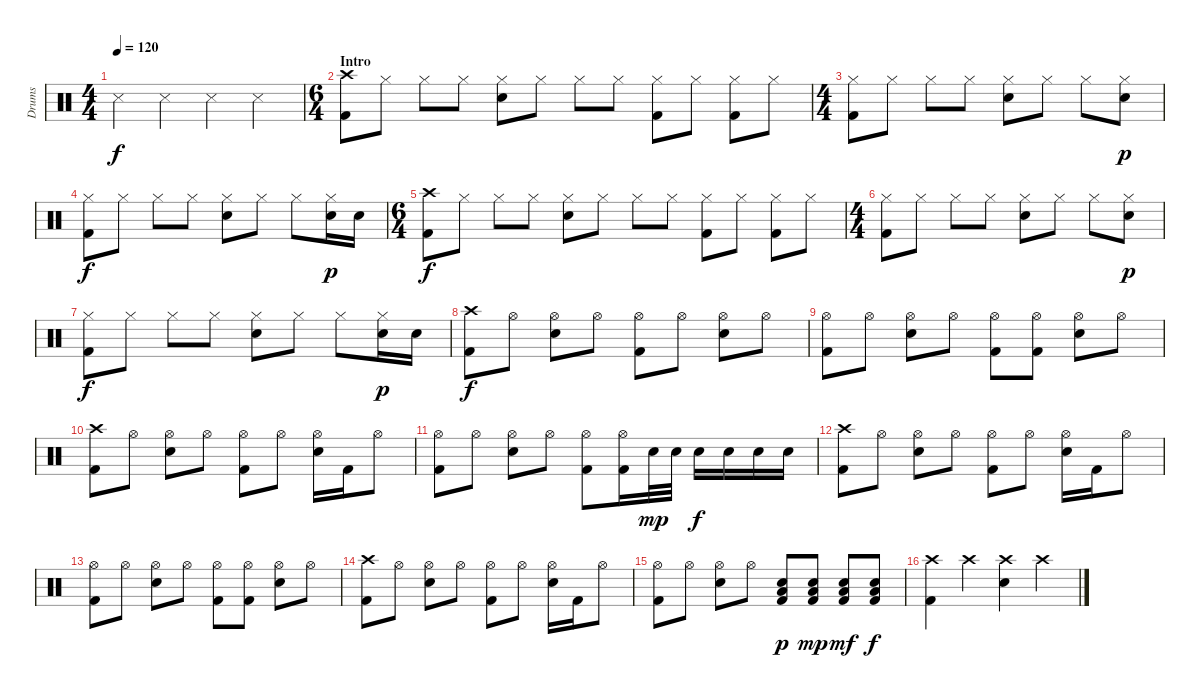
\track ("Drums" "Drums") {instrument percussion}
\staff {score}
\articulation defaults
\ts (4 4)
\tempo 120
\clef neutral
\ks c "Snare (side stick) 3".4{dy f} "Snare (side stick) 3".4 "Snare (side stick) 3".4 "Snare (side stick) 3".4
|
\ts (6 4)
\section ("" "Intro")
("Crash high (hit)" "Kick (hit) 2").8 "Hi-Hat (closed)".8 "Hi-Hat (closed)".8 "Hi-Hat (closed)".8 ("Hi-Hat (closed)" "Electric Snare (hit)").8 "Hi-Hat (closed)".8 "Hi-Hat (closed)".8 "Hi-Hat (closed)".8 ("Hi-Hat (closed)" "Kick (hit) 2").8 "Hi-Hat (closed)".8 ("Hi-Hat (closed)" "Kick (hit) 2").8 "Hi-Hat (closed)".8 |
\ts (4 4)
("Hi-Hat (closed)" "Kick (hit) 2").8 "Hi-Hat (closed)".8 "Hi-Hat (closed)".8 "Hi-Hat (closed)".8 ("Hi-Hat (closed)" "Electric Snare (hit)").8 "Hi-Hat (closed)".8 "Hi-Hat (closed)".8 ("Hi-Hat (closed)" "Electric Snare (hit)").8{dy p} |
("Hi-Hat (closed)" "Kick (hit) 2").8{dy f} "Hi-Hat (closed)".8 "Hi-Hat (closed)".8 "Hi-Hat (closed)".8 ("Hi-Hat (closed)" "Electric Snare (hit)").8 "Hi-Hat (closed)".8 "Hi-Hat (closed)".8 ("Hi-Hat (closed)" "Electric Snare (hit)").16{dy p} "Electric Snare (hit)".16 |
\ts (6 4)
("Crash high (hit)" "Kick (hit) 2").8{dy f} "Hi-Hat (closed)".8 "Hi-Hat (closed)".8 "Hi-Hat (closed)".8 ("Hi-Hat (closed)" "Electric Snare (hit)").8 "Hi-Hat (closed)".8 "Hi-Hat (closed)".8 "Hi-Hat (closed)".8 ("Hi-Hat (closed)" "Kick (hit) 2").8 "Hi-Hat (closed)".8 ("Hi-Hat (closed)" "Kick (hit) 2").8 "Hi-Hat (closed)".8 |
\ts (4 4)
("Hi-Hat (closed)" "Kick (hit) 2").8 "Hi-Hat (closed)".8 "Hi-Hat (closed)".8 "Hi-Hat (closed)".8 ("Hi-Hat (closed)" "Electric Snare (hit)").8 "Hi-Hat (closed)".8 "Hi-Hat (closed)".8 ("Hi-Hat (closed)" "Electric Snare (hit)").8{dy p} |
("Hi-Hat (closed)" "Kick (hit) 2").8{dy f} "Hi-Hat (closed)".8 "Hi-Hat (closed)".8 "Hi-Hat (closed)".8 ("Hi-Hat (closed)" "Electric Snare (hit)").8 "Hi-Hat (closed)".8 "Hi-Hat (closed)".8 ("Hi-Hat (closed)" "Electric Snare (hit)").16{dy p} "Electric Snare (hit)".16 |
("Crash high (hit)" "Kick (hit) 2").8{dy f} "Hi-Hat (open)".8 ("Hi-Hat (open)" "Electric Snare (hit)").8 "Hi-Hat (open)".8 ("Hi-Hat (open)" "Kick (hit) 2").8 "Hi-Hat (open)".8 ("Hi-Hat (open)" "Electric Snare (hit)").8 "Hi-Hat (open)".8 |
("Hi-Hat (open)" "Kick (hit) 2").8 "Hi-Hat (open)".8 ("Hi-Hat (open)" "Electric Snare (hit)").8 "Hi-Hat (open)".8 ("Hi-Hat (open)" "Kick (hit) 2").8 ("Hi-Hat (open)" "Kick (hit) 2").8 ("Hi-Hat (open)" "Electric Snare (hit)").8 "Hi-Hat (open)".8 |
("Crash high (hit)" "Kick (hit) 2").8 "Hi-Hat (open)".8 ("Hi-Hat (open)" "Electric Snare (hit)").8 "Hi-Hat (open)".8 ("Hi-Hat (open)" "Kick (hit) 2").8 "Hi-Hat (open)".8 ("Hi-Hat (open)" "Electric Snare (hit)").16 "Kick (hit) 2".16 "Hi-Hat (open)".8 |
("Hi-Hat (open)" "Kick (hit) 2").8 "Hi-Hat (open)".8 ("Hi-Hat (open)" "Electric Snare (hit)").8 "Hi-Hat (open)".8 ("Hi-Hat (open)" "Kick (hit) 2").8 ("Hi-Hat (open)" "Kick (hit) 2").16 "Electric Snare (hit)".32{dy mp} "Electric Snare (hit)".32 "Electric Snare (hit)".16{dy f} "Electric Snare (hit)".16 "Electric Snare (hit)".16 "Electric Snare (hit)".16 |
("Crash high (hit)" "Kick (hit) 2").8 "Hi-Hat (open)".8 ("Hi-Hat (open)" "Electric Snare (hit)").8 "Hi-Hat (open)".8 ("Hi-Hat (open)" "Kick (hit) 2").8 "Hi-Hat (open)".8 ("Hi-Hat (open)" "Electric Snare (hit)").16 "Kick (hit) 2".16 "Hi-Hat (open)".8 |
("Hi-Hat (open)" "Kick (hit) 2").8 "Hi-Hat (open)".8 ("Hi-Hat (open)" "Electric Snare (hit)").8 "Hi-Hat (open)".8 ("Hi-Hat (open)" "Kick (hit) 2").8 ("Hi-Hat (open)" "Kick (hit) 2").8 ("Hi-Hat (open)" "Electric Snare (hit)").8 "Hi-Hat (open)".8 |
("Crash high (hit)" "Kick (hit) 2").8 "Hi-Hat (open)".8 ("Hi-Hat (open)" "Electric Snare (hit)").8 "Hi-Hat (open)".8 ("Hi-Hat (open)" "Kick (hit) 2").8 "Hi-Hat (open)".8 ("Hi-Hat (open)" "Electric Snare (hit)").16 "Kick (hit) 2".16 "Hi-Hat (open)".8 |
("Hi-Hat (open)" "Kick (hit) 2").8 "Hi-Hat (open)".8 ("Hi-Hat (open)" "Electric Snare (hit)").8 "Hi-Hat (open)".8 ("Electric Snare (hit)" "Low Floor Tom (hit)" "Kick (hit) 2").8{dy p} ("Electric Snare (hit)" "Low Floor Tom (hit)" "Kick (hit) 2").8{dy mp} ("Electric Snare (hit)" "Low Floor Tom (hit)" "Kick (hit) 2").8{dy mf} ("Electric Snare (hit)" "Low Floor Tom (hit)" "Kick (hit) 2").8{dy f} |
("Crash high (hit)" "Kick (hit) 2").4 "Crash high (hit)".4 ("Crash high (hit)" "Electric Snare (hit)").4 "Crash high (hit)".4
